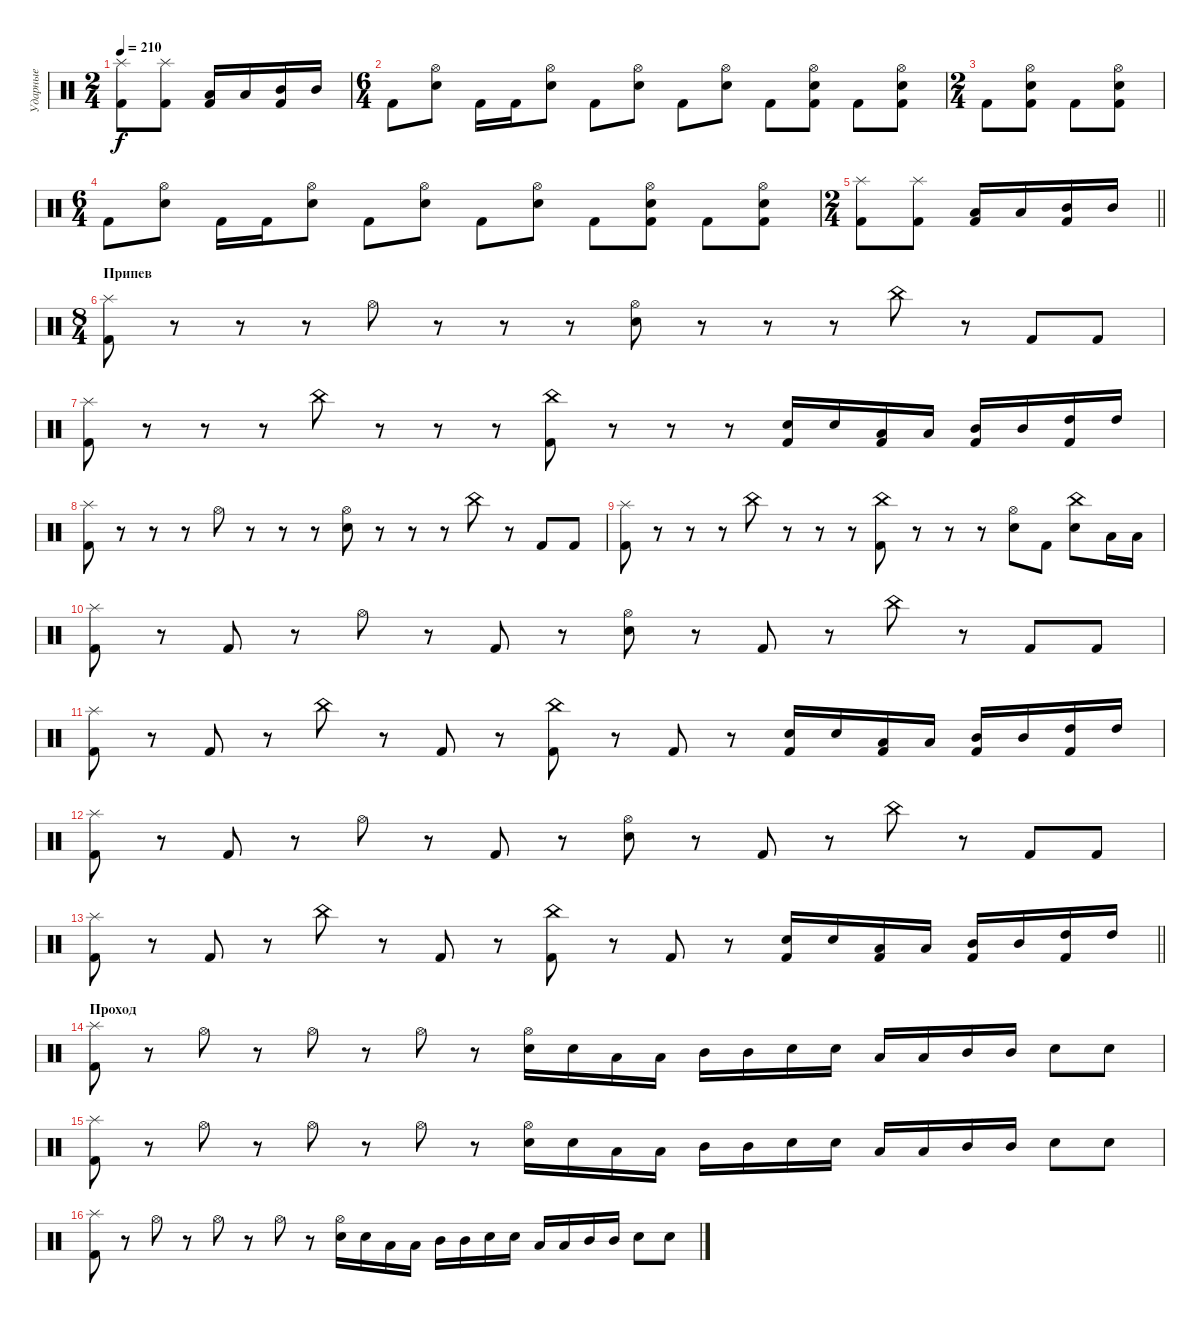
\track ("Ударные" "Ударные") {mute instrument percussion}
\staff {score}
\articulation defaults
\ts (2 4)
\tempo 210
\clef neutral
\ks c
("Kick (hit) 2" "Splash (hit)").8{dy f} ("Kick (hit) 2" "Splash (hit)").8 ("Kick (hit) 2" "Low Tom (hit)").16 "Low Tom (hit)".16 ("Kick (hit) 2" "Mid Tom (hit)").16 "Mid Tom (hit)".16 |
\ts (6 4)
"Kick (hit) 2".8 ("Electric Snare (hit)" "Hi-Hat (open)").8 "Kick (hit) 2".16 "Kick (hit) 2".16 ("Electric Snare (hit)" "Hi-Hat (open)").8 "Kick (hit) 2".8 ("Electric Snare (hit)" "Hi-Hat (open)").8 "Kick (hit) 2".8 ("Electric Snare (hit)" "Hi-Hat (open)").8 "Kick (hit) 2".8 ("Kick (hit) 2" "Electric Snare (hit)" "Hi-Hat (open)").8 "Kick (hit) 2".8 ("Kick (hit) 2" "Electric Snare (hit)" "Hi-Hat (open)").8 |
\ts (2 4)
"Kick (hit) 2".8 ("Kick (hit) 2" "Electric Snare (hit)" "Hi-Hat (open)").8 "Kick (hit) 2".8 ("Electric Snare (hit)" "Hi-Hat (open)" "Kick (hit) 2").8 |
\ts (6 4)
"Kick (hit) 2".8 ("Electric Snare (hit)" "Hi-Hat (open)").8 "Kick (hit) 2".16 "Kick (hit) 2".16 ("Electric Snare (hit)" "Hi-Hat (open)").8 "Kick (hit) 2".8 ("Electric Snare (hit)" "Hi-Hat (open)").8 "Kick (hit) 2".8 ("Electric Snare (hit)" "Hi-Hat (open)").8 "Kick (hit) 2".8 ("Kick (hit) 2" "Electric Snare (hit)" "Hi-Hat (open)").8 "Kick (hit) 2".8 ("Kick (hit) 2" "Electric Snare (hit)" "Hi-Hat (open)").8 |
\ts (2 4)
\barLineRight lightlight
("Kick (hit) 2" "Splash (hit)").8 ("Kick (hit) 2" "Splash (hit)").8 ("Kick (hit) 2" "Low Tom (hit)").16 "Low Tom (hit)".16 ("Kick (hit) 2" "Mid Tom (hit)").16 "Mid Tom (hit)".16 |
\ts (8 4)
\section ("" "Припев")
("Kick (hit) 2" "Splash (hit)").8 r.8 r.8 r.8 "Hi-Hat (open)".8 r.8 r.8 r.8 ("Electric Snare (hit)" "Hi-Hat (open)").8 r.8 r.8 r.8 "China (hit)".8 r.8 "Kick (hit) 2".8 "Kick (hit) 2".8 |
("Kick (hit) 2" "Splash (hit)").8 r.8 r.8 r.8 "China (hit)".8 r.8 r.8 r.8 ("Kick (hit) 2" "China (hit)").8 r.8 r.8 r.8 ("Kick (hit) 2" "Electric Snare (hit)").16 "Electric Snare (hit)".16 ("Kick (hit) 2" "Low Tom (hit)").16 "Low Tom (hit)".16 ("Kick (hit) 2" "Mid Tom (hit)").16 "Mid Tom (hit)".16 ("Kick (hit) 2" "High Tom (hit)").16 "High Tom (hit)".16 |
("Kick (hit) 2" "Splash (hit)").8 r.8 r.8 r.8 "Hi-Hat (open)".8 r.8 r.8 r.8 ("Electric Snare (hit)" "Hi-Hat (open)").8 r.8 r.8 r.8 "China (hit)".8 r.8 "Kick (hit) 2".8 "Kick (hit) 2".8 |
("Kick (hit) 2" "Splash (hit)").8 r.8 r.8 r.8 "China (hit)".8 r.8 r.8 r.8 ("Kick (hit) 2" "China (hit)").8 r.8 r.8 r.8 ("Electric Snare (hit)" "Hi-Hat (open)").8 "Kick (hit) 2".8 ("Electric Snare (hit)" "China (hit)").8 "Low Tom (hit)".16 "Low Tom (hit)".16 |
("Kick (hit) 2" "Splash (hit)").8 r.8 "Kick (hit) 2".8 r.8 "Hi-Hat (open)".8 r.8 "Kick (hit) 2".8 r.8 ("Electric Snare (hit)" "Hi-Hat (open)").8 r.8 "Kick (hit) 2".8 r.8 "China (hit)".8 r.8 "Kick (hit) 2".8 "Kick (hit) 2".8 |
("Kick (hit) 2" "Splash (hit)").8 r.8 "Kick (hit) 2".8 r.8 "China (hit)".8 r.8 "Kick (hit) 2".8 r.8 ("Kick (hit) 2" "China (hit)").8 r.8 "Kick (hit) 2".8 r.8 ("Kick (hit) 2" "Electric Snare (hit)").16 "Electric Snare (hit)".16 ("Kick (hit) 2" "Low Tom (hit)").16 "Low Tom (hit)".16 ("Kick (hit) 2" "Mid Tom (hit)").16 "Mid Tom (hit)".16 ("Kick (hit) 2" "High Tom (hit)").16 "High Tom (hit)".16 |
("Kick (hit) 2" "Splash (hit)").8 r.8 "Kick (hit) 2".8 r.8 "Hi-Hat (open)".8 r.8 "Kick (hit) 2".8 r.8 ("Electric Snare (hit)" "Hi-Hat (open)").8 r.8 "Kick (hit) 2".8 r.8 "China (hit)".8 r.8 "Kick (hit) 2".8 "Kick (hit) 2".8 |
\barLineRight lightlight
("Kick (hit) 2" "Splash (hit)").8 r.8 "Kick (hit) 2".8 r.8 "China (hit)".8 r.8 "Kick (hit) 2".8 r.8 ("Kick (hit) 2" "China (hit)").8 r.8 "Kick (hit) 2".8 r.8 ("Kick (hit) 2" "Electric Snare (hit)").16 "Electric Snare (hit)".16 ("Kick (hit) 2" "Low Tom (hit)").16 "Low Tom (hit)".16 ("Kick (hit) 2" "Mid Tom (hit)").16 "Mid Tom (hit)".16 ("Kick (hit) 2" "High Tom (hit)").16 "High Tom (hit)".16 |
\section ("" "Проход")
("Kick (hit) 2" "Splash (hit)").8 r.8 "Hi-Hat (open)".8 r.8 "Hi-Hat (open)".8 r.8 "Hi-Hat (open)".8 r.8 ("Electric Snare (hit)" "Hi-Hat (open)").16 "Electric Snare (hit)".16 "Low Tom (hit)".16 "Low Tom (hit)".16 "Mid Tom (hit)".16 "Mid Tom (hit)".16 "Electric Snare (hit)".16 "Electric Snare (hit)".16 "Low Tom (hit)".16 "Low Tom (hit)".16 "Mid Tom (hit)".16 "Mid Tom (hit)".16 "Electric Snare (hit)".8 "Electric Snare (hit)".8 |
("Kick (hit) 2" "Splash (hit)").8 r.8 "Hi-Hat (open)".8 r.8 "Hi-Hat (open)".8 r.8 "Hi-Hat (open)".8 r.8 ("Electric Snare (hit)" "Hi-Hat (open)").16 "Electric Snare (hit)".16 "Low Tom (hit)".16 "Low Tom (hit)".16 "Mid Tom (hit)".16 "Mid Tom (hit)".16 "Electric Snare (hit)".16 "Electric Snare (hit)".16 "Low Tom (hit)".16 "Low Tom (hit)".16 "Mid Tom (hit)".16 "Mid Tom (hit)".16 "Electric Snare (hit)".8 "Electric Snare (hit)".8 |
("Kick (hit) 2" "Splash (hit)").8 r.8 "Hi-Hat (open)".8 r.8 "Hi-Hat (open)".8 r.8 "Hi-Hat (open)".8 r.8 ("Electric Snare (hit)" "Hi-Hat (open)").16 "Electric Snare (hit)".16 "Low Tom (hit)".16 "Low Tom (hit)".16 "Mid Tom (hit)".16 "Mid Tom (hit)".16 "Electric Snare (hit)".16 "Electric Snare (hit)".16 "Low Tom (hit)".16 "Low Tom (hit)".16 "Mid Tom (hit)".16 "Mid Tom (hit)".16 "Electric Snare (hit)".8 "Electric Snare (hit)".8
